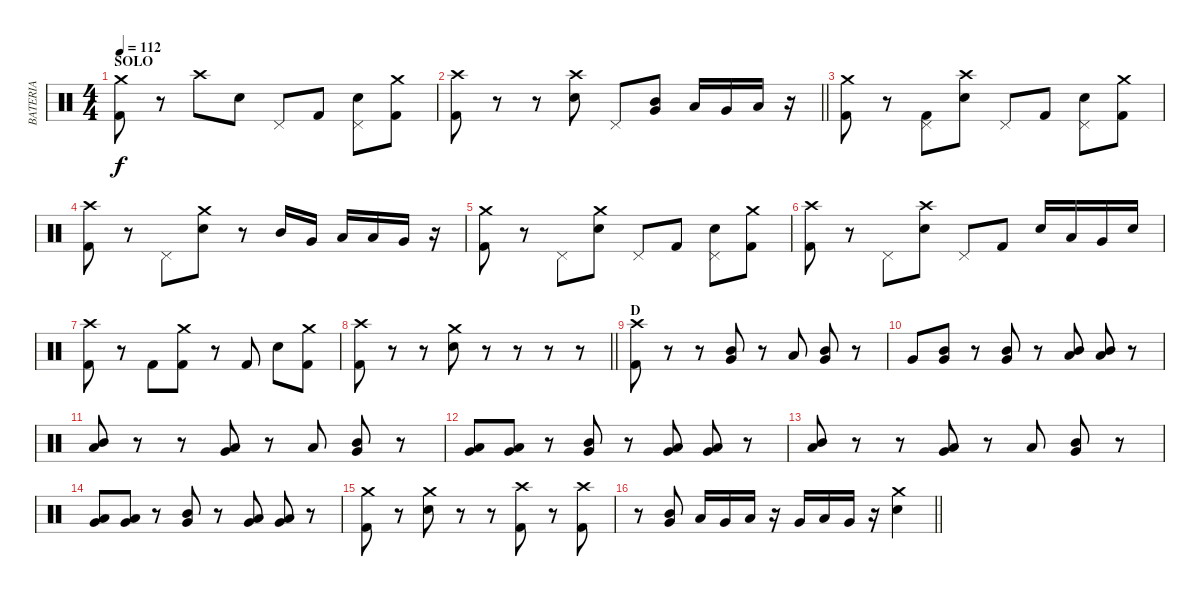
\track ("BATERIA" "BATERIA") {instrument percussion}
\staff {score}
\articulation defaults
\ts (4 4)
\section ("" "SOLO")
\tempo 112
\clef neutral
\ks c
("Kick (hit) 2" "Crash medium (hit)").8{dy f} r.8 "Crash high (hit)".8 "Electric Snare (hit)".8 "Pedal Hi-Hat (hit)".8 "Kick (hit) 2".8 ("Pedal Hi-Hat (hit)" "Electric Snare (hit)").8 ("Kick (hit) 2" "Crash medium (hit)").8 |
\barLineRight lightlight
("Kick (hit) 2" "Crash high (hit)").8 r.8 r.8 ("Electric Snare (hit)" "Crash high (hit)").8 "Pedal Hi-Hat (hit)".8 ("Mid Tom (hit)" "Very Low Tom (hit)").8 "Low Tom (hit)".16 "Very Low Tom (hit)".16 "Low Floor Tom (hit)".16 r.16 |
("Kick (hit) 2" "Crash medium (hit)").8 r.8 ("Kick (hit) 2" "Pedal Hi-Hat (hit)").8 ("Electric Snare (hit)" "Crash high (hit)").8 "Pedal Hi-Hat (hit)".8 "Kick (hit) 2".8 ("Pedal Hi-Hat (hit)" "Electric Snare (hit)").8 ("Kick (hit) 2" "Crash medium (hit)").8 |
("Kick (hit) 2" "Crash high (hit)").8 r.8 "Pedal Hi-Hat (hit)".8 ("Electric Snare (hit)" "Crash medium (hit)").8 r.8 "Mid Tom (hit)".16 "Very Low Tom (hit)".16 "Low Tom (hit)".16 "Low Floor Tom (hit)".16 "Very Low Tom (hit)".16 r.16 |
("Kick (hit) 2" "Crash medium (hit)").8 r.8 "Pedal Hi-Hat (hit)".8 ("Electric Snare (hit)" "Crash medium (hit)").8 "Pedal Hi-Hat (hit)".8 "Kick (hit) 2".8 ("Pedal Hi-Hat (hit)" "Electric Snare (hit)").8 ("Kick (hit) 2" "Crash medium (hit)").8 |
("Kick (hit) 2" "Crash high (hit)").8 r.8 "Pedal Hi-Hat (hit)".8 ("Electric Snare (hit)" "Crash high (hit)").8 "Pedal Hi-Hat (hit)".8 "Kick (hit) 2".8 "Electric Snare (hit)".16 "Low Tom (hit)".16 "Very Low Tom (hit)".16 "Electric Snare (hit)".16 |
("Kick (hit) 2" "Crash high (hit)").8 r.8 "Kick (hit) 2".8 ("Kick (hit) 2" "Crash medium (hit)").8 r.8 "Kick (hit) 2".8 "Electric Snare (hit)".8 ("Kick (hit) 2" "Crash medium (hit)").8 |
\barLineRight lightlight
("Kick (hit) 2" "Crash high (hit)").8 r.8 r.8 ("Electric Snare (hit)" "Crash medium (hit)").8 r.8 r.8 r.8 r.8 |
\section ("" "D")
("Kick (hit) 2" "Crash high (hit)").8 r.8 r.8 ("Mid Tom (hit)" "Very Low Tom (hit)").8 r.8 "Low Tom (hit)".8 ("Mid Tom (hit)" "Very Low Tom (hit)").8 r.8 |
"Very Low Tom (hit)".8 ("Mid Tom (hit)" "Very Low Tom (hit)").8 r.8 ("Mid Tom (hit)" "Very Low Tom (hit)").8 r.8 ("Mid Tom (hit)" "Low Tom (hit)").8 ("Mid Tom (hit)" "Low Tom (hit)").8 r.8 |
("Mid Tom (hit)" "Low Tom (hit)").8 r.8 r.8 ("Low Tom (hit)" "Very Low Tom (hit)").8 r.8 "Low Tom (hit)".8 ("Mid Tom (hit)" "Very Low Tom (hit)").8 r.8 |
("Low Tom (hit)" "Very Low Tom (hit)").8 ("Low Tom (hit)" "Very Low Tom (hit)").8 r.8 ("Mid Tom (hit)" "Very Low Tom (hit)").8 r.8 ("Low Tom (hit)" "Very Low Tom (hit)").8 ("Low Tom (hit)" "Very Low Tom (hit)").8 r.8 |
("Mid Tom (hit)" "Low Tom (hit)").8 r.8 r.8 ("Low Tom (hit)" "Very Low Tom (hit)").8 r.8 "Low Tom (hit)".8 ("Mid Tom (hit)" "Very Low Tom (hit)").8 r.8 |
("Low Tom (hit)" "Very Low Tom (hit)").8 ("Low Tom (hit)" "Very Low Tom (hit)").8 r.8 ("Mid Tom (hit)" "Very Low Tom (hit)").8 r.8 ("Low Tom (hit)" "Very Low Tom (hit)").8 ("Low Tom (hit)" "Very Low Tom (hit)").8 r.8 |
("Kick (hit) 2" "Crash medium (hit)").8 r.8 ("Electric Snare (hit)" "Crash medium (hit)").8 r.8 r.8 ("Kick (hit) 2" "Crash high (hit)").8 r.8 ("Kick (hit) 2" "Crash high (hit)").8 |
\barLineRight lightlight
r.8 ("Mid Tom (hit)" "Very Low Tom (hit)").8 "Low Tom (hit)".16 "Very Low Tom (hit)".16 "Low Tom (hit)".16 r.16 "Very Low Tom (hit)".16 "Low Floor Tom (hit)".16 "Very Low Tom (hit)".16 r.16 ("Electric Snare (hit)" "Crash medium (hit)").4
